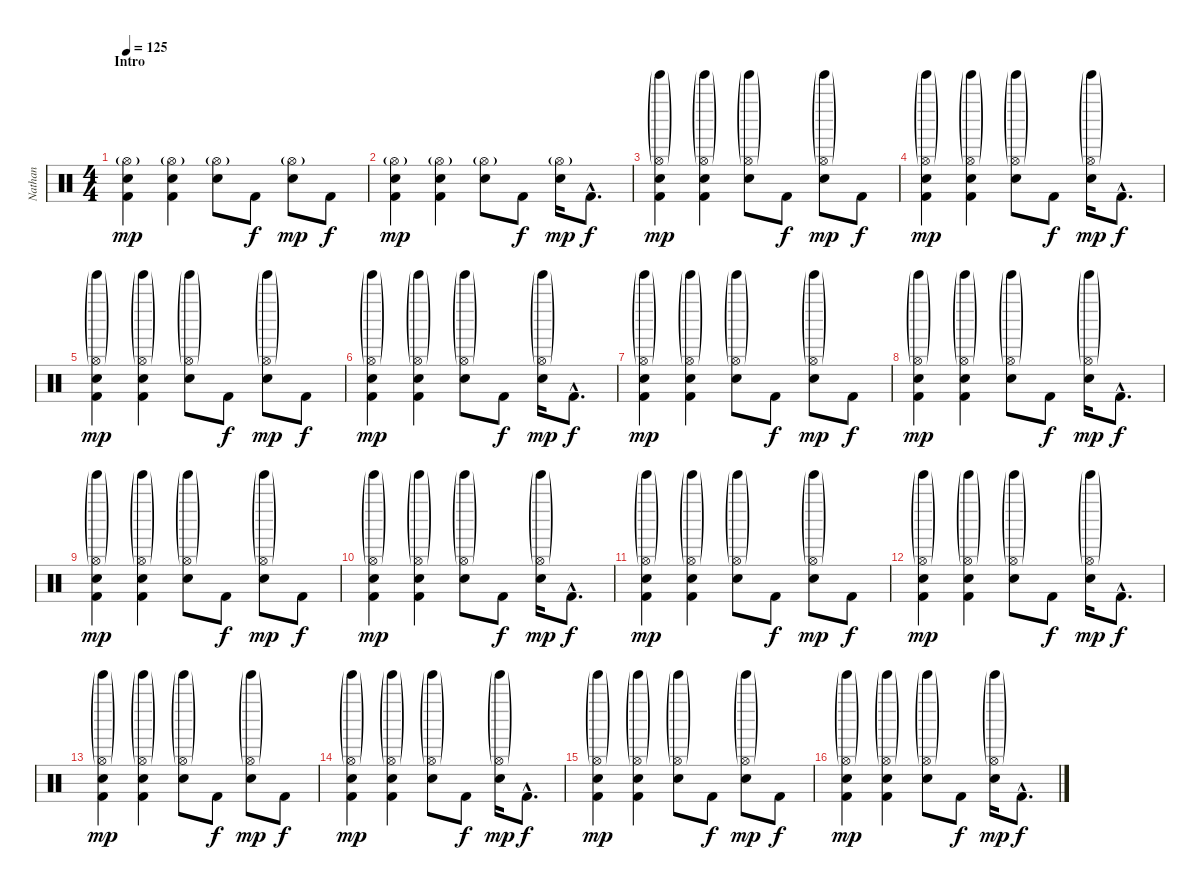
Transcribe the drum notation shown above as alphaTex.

\track ("Nathan" "Nathan") {instrument percussion}
\staff {score}
\articulation defaults
\ts (4 4)
\section ("" "Intro")
\tempo 125
\clef neutral
\ks c
("Hi-Hat (open)"{g} "Electric Snare (hit)" "Kick (hit) 2").4{dy mp} ("Hi-Hat (open)"{g} "Electric Snare (hit)" "Kick (hit) 2").4 ("Hi-Hat (open)"{g} "Electric Snare (hit)").8 "Kick (hit) 2".8{dy f} ("Hi-Hat (open)"{g} "Electric Snare (hit)").8{dy mp} "Kick (hit) 2".8{dy f} |
("Hi-Hat (open)"{g} "Electric Snare (hit)" "Kick (hit) 2").4{dy mp} ("Hi-Hat (open)"{g} "Electric Snare (hit)" "Kick (hit) 2").4 ("Hi-Hat (open)"{g} "Electric Snare (hit)").8 "Kick (hit) 2".8{dy f} ("Hi-Hat (open)"{g} "Electric Snare (hit)").16{dy mp} "Kick (hit) 2"{hac}.8{d dy f} |
("Hi-Hat (open)"{g} "Tinkle Bell (hit)"{g} "Electric Snare (hit)" "Kick (hit) 2").4{dy mp} ("Hi-Hat (open)"{g} "Tinkle Bell (hit)"{g} "Electric Snare (hit)" "Kick (hit) 2").4 ("Hi-Hat (open)"{g} "Tinkle Bell (hit)"{g} "Electric Snare (hit)").8 "Kick (hit) 2".8{dy f} ("Hi-Hat (open)"{g} "Tinkle Bell (hit)"{g} "Electric Snare (hit)").8{dy mp} "Kick (hit) 2".8{dy f} |
("Hi-Hat (open)"{g} "Tinkle Bell (hit)"{g} "Electric Snare (hit)" "Kick (hit) 2").4{dy mp} ("Hi-Hat (open)"{g} "Tinkle Bell (hit)"{g} "Electric Snare (hit)" "Kick (hit) 2").4 ("Hi-Hat (open)"{g} "Tinkle Bell (hit)"{g} "Electric Snare (hit)").8 "Kick (hit) 2".8{dy f} ("Hi-Hat (open)"{g} "Tinkle Bell (hit)"{g} "Electric Snare (hit)").16{dy mp} "Kick (hit) 2"{hac}.8{d dy f} |
("Hi-Hat (open)"{g} "Tinkle Bell (hit)"{g} "Electric Snare (hit)" "Kick (hit) 2").4{dy mp} ("Hi-Hat (open)"{g} "Tinkle Bell (hit)"{g} "Electric Snare (hit)" "Kick (hit) 2").4 ("Hi-Hat (open)"{g} "Tinkle Bell (hit)"{g} "Electric Snare (hit)").8 "Kick (hit) 2".8{dy f} ("Hi-Hat (open)"{g} "Tinkle Bell (hit)"{g} "Electric Snare (hit)").8{dy mp} "Kick (hit) 2".8{dy f} |
("Hi-Hat (open)"{g} "Tinkle Bell (hit)"{g} "Electric Snare (hit)" "Kick (hit) 2").4{dy mp} ("Hi-Hat (open)"{g} "Tinkle Bell (hit)"{g} "Electric Snare (hit)" "Kick (hit) 2").4 ("Hi-Hat (open)"{g} "Tinkle Bell (hit)"{g} "Electric Snare (hit)").8 "Kick (hit) 2".8{dy f} ("Hi-Hat (open)"{g} "Tinkle Bell (hit)"{g} "Electric Snare (hit)").16{dy mp} "Kick (hit) 2"{hac}.8{d dy f} |
("Hi-Hat (open)"{g} "Tinkle Bell (hit)"{g} "Electric Snare (hit)" "Kick (hit) 2").4{dy mp} ("Hi-Hat (open)"{g} "Tinkle Bell (hit)"{g} "Electric Snare (hit)" "Kick (hit) 2").4 ("Hi-Hat (open)"{g} "Tinkle Bell (hit)"{g} "Electric Snare (hit)").8 "Kick (hit) 2".8{dy f} ("Hi-Hat (open)"{g} "Tinkle Bell (hit)"{g} "Electric Snare (hit)").8{dy mp} "Kick (hit) 2".8{dy f} |
("Hi-Hat (open)"{g} "Tinkle Bell (hit)"{g} "Electric Snare (hit)" "Kick (hit) 2").4{dy mp} ("Hi-Hat (open)"{g} "Tinkle Bell (hit)"{g} "Electric Snare (hit)" "Kick (hit) 2").4 ("Hi-Hat (open)"{g} "Tinkle Bell (hit)"{g} "Electric Snare (hit)").8 "Kick (hit) 2".8{dy f} ("Hi-Hat (open)"{g} "Tinkle Bell (hit)"{g} "Electric Snare (hit)").16{dy mp} "Kick (hit) 2"{hac}.8{d dy f} |
("Hi-Hat (open)"{g} "Tinkle Bell (hit)"{g} "Electric Snare (hit)" "Kick (hit) 2").4{dy mp} ("Hi-Hat (open)"{g} "Tinkle Bell (hit)"{g} "Electric Snare (hit)" "Kick (hit) 2").4 ("Hi-Hat (open)"{g} "Tinkle Bell (hit)"{g} "Electric Snare (hit)").8 "Kick (hit) 2".8{dy f} ("Hi-Hat (open)"{g} "Tinkle Bell (hit)"{g} "Electric Snare (hit)").8{dy mp} "Kick (hit) 2".8{dy f} |
("Hi-Hat (open)"{g} "Tinkle Bell (hit)"{g} "Electric Snare (hit)" "Kick (hit) 2").4{dy mp} ("Hi-Hat (open)"{g} "Tinkle Bell (hit)"{g} "Electric Snare (hit)" "Kick (hit) 2").4 ("Hi-Hat (open)"{g} "Tinkle Bell (hit)"{g} "Electric Snare (hit)").8 "Kick (hit) 2".8{dy f} ("Hi-Hat (open)"{g} "Tinkle Bell (hit)"{g} "Electric Snare (hit)").16{dy mp} "Kick (hit) 2"{hac}.8{d dy f} |
("Hi-Hat (open)"{g} "Tinkle Bell (hit)"{g} "Electric Snare (hit)" "Kick (hit) 2").4{dy mp} ("Hi-Hat (open)"{g} "Tinkle Bell (hit)"{g} "Electric Snare (hit)" "Kick (hit) 2").4 ("Hi-Hat (open)"{g} "Tinkle Bell (hit)"{g} "Electric Snare (hit)").8 "Kick (hit) 2".8{dy f} ("Hi-Hat (open)"{g} "Tinkle Bell (hit)"{g} "Electric Snare (hit)").8{dy mp} "Kick (hit) 2".8{dy f} |
("Hi-Hat (open)"{g} "Tinkle Bell (hit)"{g} "Electric Snare (hit)" "Kick (hit) 2").4{dy mp} ("Hi-Hat (open)"{g} "Tinkle Bell (hit)"{g} "Electric Snare (hit)" "Kick (hit) 2").4 ("Hi-Hat (open)"{g} "Tinkle Bell (hit)"{g} "Electric Snare (hit)").8 "Kick (hit) 2".8{dy f} ("Hi-Hat (open)"{g} "Tinkle Bell (hit)"{g} "Electric Snare (hit)").16{dy mp} "Kick (hit) 2"{hac}.8{d dy f} |
("Hi-Hat (open)"{g} "Tinkle Bell (hit)"{g} "Electric Snare (hit)" "Kick (hit) 2").4{dy mp} ("Hi-Hat (open)"{g} "Tinkle Bell (hit)"{g} "Electric Snare (hit)" "Kick (hit) 2").4 ("Hi-Hat (open)"{g} "Tinkle Bell (hit)"{g} "Electric Snare (hit)").8 "Kick (hit) 2".8{dy f} ("Hi-Hat (open)"{g} "Tinkle Bell (hit)"{g} "Electric Snare (hit)").8{dy mp} "Kick (hit) 2".8{dy f} |
("Hi-Hat (open)"{g} "Tinkle Bell (hit)"{g} "Electric Snare (hit)" "Kick (hit) 2").4{dy mp} ("Hi-Hat (open)"{g} "Tinkle Bell (hit)"{g} "Electric Snare (hit)" "Kick (hit) 2").4 ("Hi-Hat (open)"{g} "Tinkle Bell (hit)"{g} "Electric Snare (hit)").8 "Kick (hit) 2".8{dy f} ("Hi-Hat (open)"{g} "Tinkle Bell (hit)"{g} "Electric Snare (hit)").16{dy mp} "Kick (hit) 2"{hac}.8{d dy f} |
("Hi-Hat (open)"{g} "Tinkle Bell (hit)"{g} "Electric Snare (hit)" "Kick (hit) 2").4{dy mp} ("Hi-Hat (open)"{g} "Tinkle Bell (hit)"{g} "Electric Snare (hit)" "Kick (hit) 2").4 ("Hi-Hat (open)"{g} "Tinkle Bell (hit)"{g} "Electric Snare (hit)").8 "Kick (hit) 2".8{dy f} ("Hi-Hat (open)"{g} "Tinkle Bell (hit)"{g} "Electric Snare (hit)").8{dy mp} "Kick (hit) 2".8{dy f} |
("Hi-Hat (open)"{g} "Tinkle Bell (hit)"{g} "Electric Snare (hit)" "Kick (hit) 2").4{dy mp} ("Hi-Hat (open)"{g} "Tinkle Bell (hit)"{g} "Electric Snare (hit)" "Kick (hit) 2").4 ("Hi-Hat (open)"{g} "Tinkle Bell (hit)"{g} "Electric Snare (hit)").8 "Kick (hit) 2".8{dy f} ("Hi-Hat (open)"{g} "Tinkle Bell (hit)"{g} "Electric Snare (hit)").16{dy mp} "Kick (hit) 2"{hac}.8{d dy f}
